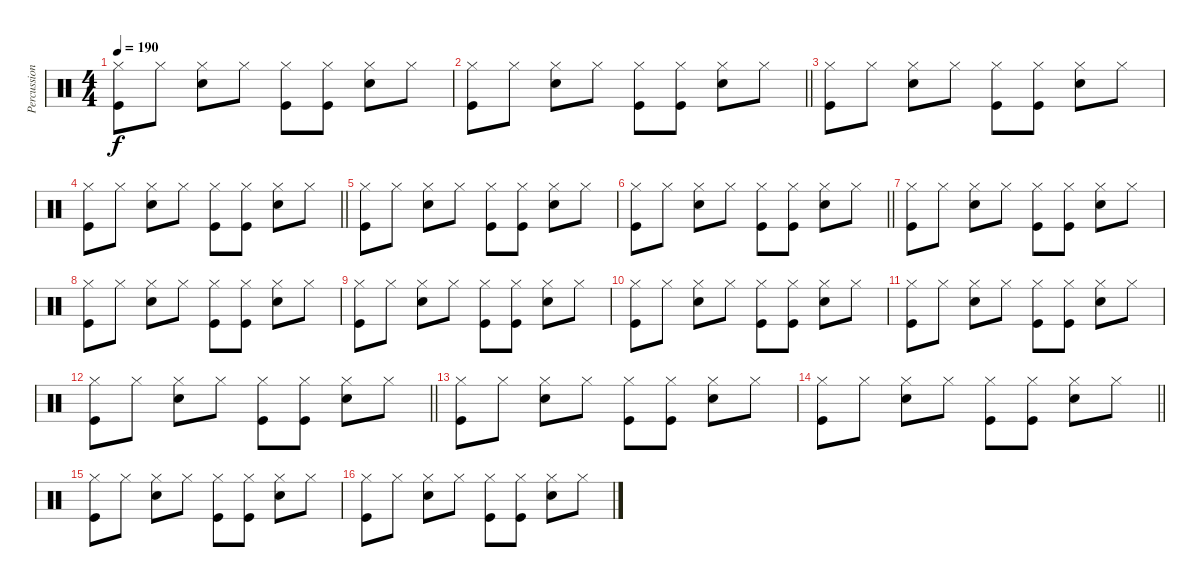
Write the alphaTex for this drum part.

\track ("Percussion" "Percussion") {instrument percussion}
\staff {score}
\articulation defaults
\ts (4 4)
\tempo 190
\clef neutral
\ks c
("Hi-Hat (closed)" "Kick (hit)").8{dy f} "Hi-Hat (closed)".8 ("Snare (hit) 2" "Hi-Hat (closed)").8 "Hi-Hat (closed)".8 ("Hi-Hat (closed)" "Kick (hit)").8 ("Hi-Hat (closed)" "Kick (hit)").8 ("Snare (hit) 2" "Hi-Hat (closed)").8 "Hi-Hat (closed)".8 |
\barLineRight lightlight
("Hi-Hat (closed)" "Kick (hit)").8 "Hi-Hat (closed)".8 ("Snare (hit) 2" "Hi-Hat (closed)").8 "Hi-Hat (closed)".8 ("Hi-Hat (closed)" "Kick (hit)").8 ("Hi-Hat (closed)" "Kick (hit)").8 ("Snare (hit) 2" "Hi-Hat (closed)").8 "Hi-Hat (closed)".8 |
("Hi-Hat (closed)" "Kick (hit)").8 "Hi-Hat (closed)".8 ("Snare (hit) 2" "Hi-Hat (closed)").8 "Hi-Hat (closed)".8 ("Hi-Hat (closed)" "Kick (hit)").8 ("Hi-Hat (closed)" "Kick (hit)").8 ("Snare (hit) 2" "Hi-Hat (closed)").8 "Hi-Hat (closed)".8 |
\barLineRight lightlight
("Hi-Hat (closed)" "Kick (hit)").8 "Hi-Hat (closed)".8 ("Snare (hit) 2" "Hi-Hat (closed)").8 "Hi-Hat (closed)".8 ("Hi-Hat (closed)" "Kick (hit)").8 ("Hi-Hat (closed)" "Kick (hit)").8 ("Snare (hit) 2" "Hi-Hat (closed)").8 "Hi-Hat (closed)".8 |
("Hi-Hat (closed)" "Kick (hit)").8 "Hi-Hat (closed)".8 ("Snare (hit) 2" "Hi-Hat (closed)").8 "Hi-Hat (closed)".8 ("Hi-Hat (closed)" "Kick (hit)").8 ("Hi-Hat (closed)" "Kick (hit)").8 ("Snare (hit) 2" "Hi-Hat (closed)").8 "Hi-Hat (closed)".8 |
\barLineRight lightlight
("Hi-Hat (closed)" "Kick (hit)").8 "Hi-Hat (closed)".8 ("Snare (hit) 2" "Hi-Hat (closed)").8 "Hi-Hat (closed)".8 ("Hi-Hat (closed)" "Kick (hit)").8 ("Hi-Hat (closed)" "Kick (hit)").8 ("Snare (hit) 2" "Hi-Hat (closed)").8 "Hi-Hat (closed)".8 |
("Hi-Hat (closed)" "Kick (hit)").8 "Hi-Hat (closed)".8 ("Snare (hit) 2" "Hi-Hat (closed)").8 "Hi-Hat (closed)".8 ("Hi-Hat (closed)" "Kick (hit)").8 ("Hi-Hat (closed)" "Kick (hit)").8 ("Snare (hit) 2" "Hi-Hat (closed)").8 "Hi-Hat (closed)".8 |
("Hi-Hat (closed)" "Kick (hit)").8 "Hi-Hat (closed)".8 ("Snare (hit) 2" "Hi-Hat (closed)").8 "Hi-Hat (closed)".8 ("Hi-Hat (closed)" "Kick (hit)").8 ("Hi-Hat (closed)" "Kick (hit)").8 ("Snare (hit) 2" "Hi-Hat (closed)").8 "Hi-Hat (closed)".8 |
("Hi-Hat (closed)" "Kick (hit)").8 "Hi-Hat (closed)".8 ("Snare (hit) 2" "Hi-Hat (closed)").8 "Hi-Hat (closed)".8 ("Hi-Hat (closed)" "Kick (hit)").8 ("Hi-Hat (closed)" "Kick (hit)").8 ("Snare (hit) 2" "Hi-Hat (closed)").8 "Hi-Hat (closed)".8 |
("Hi-Hat (closed)" "Kick (hit)").8 "Hi-Hat (closed)".8 ("Snare (hit) 2" "Hi-Hat (closed)").8 "Hi-Hat (closed)".8 ("Hi-Hat (closed)" "Kick (hit)").8 ("Hi-Hat (closed)" "Kick (hit)").8 ("Snare (hit) 2" "Hi-Hat (closed)").8 "Hi-Hat (closed)".8 |
("Hi-Hat (closed)" "Kick (hit)").8 "Hi-Hat (closed)".8 ("Snare (hit) 2" "Hi-Hat (closed)").8 "Hi-Hat (closed)".8 ("Hi-Hat (closed)" "Kick (hit)").8 ("Hi-Hat (closed)" "Kick (hit)").8 ("Snare (hit) 2" "Hi-Hat (closed)").8 "Hi-Hat (closed)".8 |
\barLineRight lightlight
("Hi-Hat (closed)" "Kick (hit)").8 "Hi-Hat (closed)".8 ("Snare (hit) 2" "Hi-Hat (closed)").8 "Hi-Hat (closed)".8 ("Hi-Hat (closed)" "Kick (hit)").8 ("Hi-Hat (closed)" "Kick (hit)").8 ("Snare (hit) 2" "Hi-Hat (closed)").8 "Hi-Hat (closed)".8 |
("Hi-Hat (closed)" "Kick (hit)").8 "Hi-Hat (closed)".8 ("Snare (hit) 2" "Hi-Hat (closed)").8 "Hi-Hat (closed)".8 ("Hi-Hat (closed)" "Kick (hit)").8 ("Hi-Hat (closed)" "Kick (hit)").8 ("Snare (hit) 2" "Hi-Hat (closed)").8 "Hi-Hat (closed)".8 |
\barLineRight lightlight
("Hi-Hat (closed)" "Kick (hit)").8 "Hi-Hat (closed)".8 ("Snare (hit) 2" "Hi-Hat (closed)").8 "Hi-Hat (closed)".8 ("Hi-Hat (closed)" "Kick (hit)").8 ("Hi-Hat (closed)" "Kick (hit)").8 ("Snare (hit) 2" "Hi-Hat (closed)").8 "Hi-Hat (closed)".8 |
("Hi-Hat (closed)" "Kick (hit)").8 "Hi-Hat (closed)".8 ("Snare (hit) 2" "Hi-Hat (closed)").8 "Hi-Hat (closed)".8 ("Hi-Hat (closed)" "Kick (hit)").8 ("Hi-Hat (closed)" "Kick (hit)").8 ("Snare (hit) 2" "Hi-Hat (closed)").8 "Hi-Hat (closed)".8 |
("Hi-Hat (closed)" "Kick (hit)").8 "Hi-Hat (closed)".8 ("Snare (hit) 2" "Hi-Hat (closed)").8 "Hi-Hat (closed)".8 ("Hi-Hat (closed)" "Kick (hit)").8 ("Hi-Hat (closed)" "Kick (hit)").8 ("Snare (hit) 2" "Hi-Hat (closed)").8 "Hi-Hat (closed)".8
